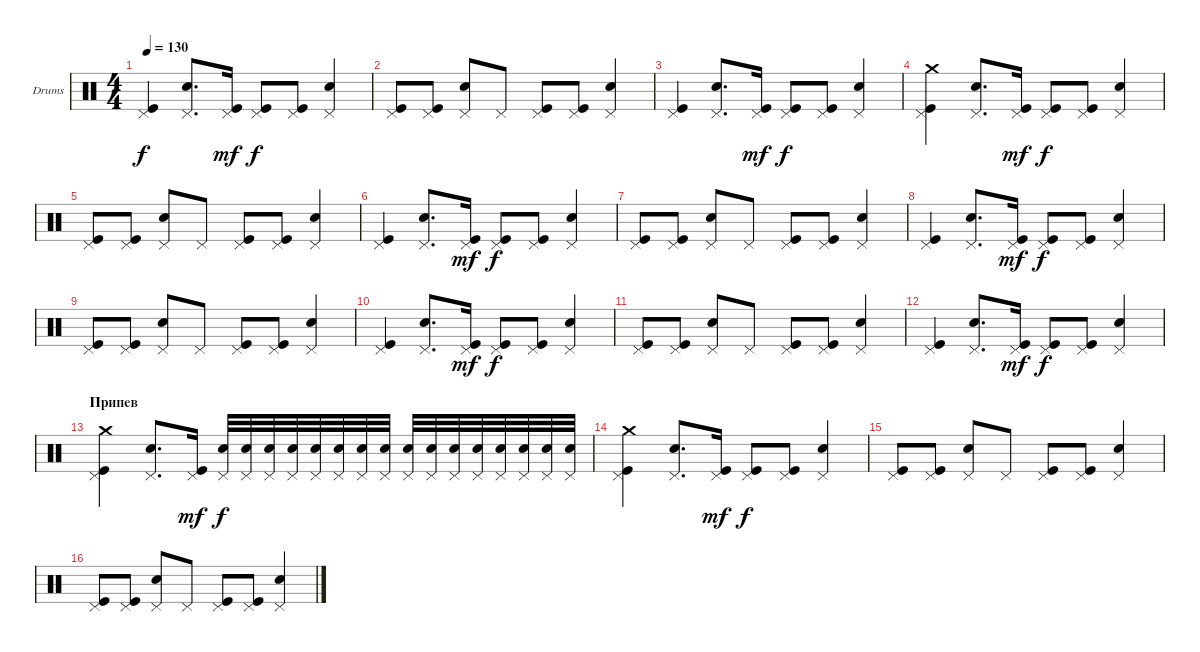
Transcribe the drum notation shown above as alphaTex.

\defaultSystemsLayout 4
\bracketExtendMode groupsimilarinstruments
\firstSystemTrackNameOrientation horizontal
\otherSystemsTrackNameOrientation horizontal
\track ("Е. Кулаков" "Drums") {instrument percussion}
\staff {score}
\articulation defaults
\ts (4 4)
\tempo 130
\clef neutral
\ks c
("Kick (hit)" "Pedal Hi-Hat (hit)").4{dy f} ("Snare (hit) 2" "Pedal Hi-Hat (hit)").8{d} ("Kick (hit)" "Pedal Hi-Hat (hit)").16{dy mf} ("Kick (hit)" "Pedal Hi-Hat (hit)").8{dy f} ("Kick (hit)" "Pedal Hi-Hat (hit)").8 ("Snare (hit) 2" "Pedal Hi-Hat (hit)").4 |
("Kick (hit)" "Pedal Hi-Hat (hit)").8 ("Kick (hit)" "Pedal Hi-Hat (hit)").8 ("Snare (hit) 2" "Pedal Hi-Hat (hit)").8 "Pedal Hi-Hat (hit)".8 ("Kick (hit)" "Pedal Hi-Hat (hit)").8 ("Kick (hit)" "Pedal Hi-Hat (hit)").8 ("Snare (hit) 2" "Pedal Hi-Hat (hit)").4 |
("Kick (hit)" "Pedal Hi-Hat (hit)").4 ("Snare (hit) 2" "Pedal Hi-Hat (hit)").8{d} ("Kick (hit)" "Pedal Hi-Hat (hit)").16{dy mf} ("Kick (hit)" "Pedal Hi-Hat (hit)").8{dy f} ("Kick (hit)" "Pedal Hi-Hat (hit)").8 ("Snare (hit) 2" "Pedal Hi-Hat (hit)").4 |
("Kick (hit)" "Pedal Hi-Hat (hit)" "Crash medium (hit)").4 ("Snare (hit) 2" "Pedal Hi-Hat (hit)").8{d} ("Kick (hit)" "Pedal Hi-Hat (hit)").16{dy mf} ("Kick (hit)" "Pedal Hi-Hat (hit)").8{dy f} ("Kick (hit)" "Pedal Hi-Hat (hit)").8 ("Snare (hit) 2" "Pedal Hi-Hat (hit)").4 |
("Kick (hit)" "Pedal Hi-Hat (hit)").8 ("Kick (hit)" "Pedal Hi-Hat (hit)").8 ("Snare (hit) 2" "Pedal Hi-Hat (hit)").8 "Pedal Hi-Hat (hit)".8 ("Kick (hit)" "Pedal Hi-Hat (hit)").8 ("Kick (hit)" "Pedal Hi-Hat (hit)").8 ("Snare (hit) 2" "Pedal Hi-Hat (hit)").4 |
("Kick (hit)" "Pedal Hi-Hat (hit)").4 ("Snare (hit) 2" "Pedal Hi-Hat (hit)").8{d} ("Kick (hit)" "Pedal Hi-Hat (hit)").16{dy mf} ("Kick (hit)" "Pedal Hi-Hat (hit)").8{dy f} ("Kick (hit)" "Pedal Hi-Hat (hit)").8 ("Snare (hit) 2" "Pedal Hi-Hat (hit)").4 |
("Kick (hit)" "Pedal Hi-Hat (hit)").8 ("Kick (hit)" "Pedal Hi-Hat (hit)").8 ("Snare (hit) 2" "Pedal Hi-Hat (hit)").8 "Pedal Hi-Hat (hit)".8 ("Kick (hit)" "Pedal Hi-Hat (hit)").8 ("Kick (hit)" "Pedal Hi-Hat (hit)").8 ("Snare (hit) 2" "Pedal Hi-Hat (hit)").4 |
("Kick (hit)" "Pedal Hi-Hat (hit)").4 ("Snare (hit) 2" "Pedal Hi-Hat (hit)").8{d} ("Kick (hit)" "Pedal Hi-Hat (hit)").16{dy mf} ("Kick (hit)" "Pedal Hi-Hat (hit)").8{dy f} ("Kick (hit)" "Pedal Hi-Hat (hit)").8 ("Snare (hit) 2" "Pedal Hi-Hat (hit)").4 |
("Kick (hit)" "Pedal Hi-Hat (hit)").8 ("Kick (hit)" "Pedal Hi-Hat (hit)").8 ("Snare (hit) 2" "Pedal Hi-Hat (hit)").8 "Pedal Hi-Hat (hit)".8 ("Kick (hit)" "Pedal Hi-Hat (hit)").8 ("Kick (hit)" "Pedal Hi-Hat (hit)").8 ("Snare (hit) 2" "Pedal Hi-Hat (hit)").4 |
("Kick (hit)" "Pedal Hi-Hat (hit)").4 ("Snare (hit) 2" "Pedal Hi-Hat (hit)").8{d} ("Kick (hit)" "Pedal Hi-Hat (hit)").16{dy mf} ("Kick (hit)" "Pedal Hi-Hat (hit)").8{dy f} ("Kick (hit)" "Pedal Hi-Hat (hit)").8 ("Snare (hit) 2" "Pedal Hi-Hat (hit)").4 |
("Kick (hit)" "Pedal Hi-Hat (hit)").8 ("Kick (hit)" "Pedal Hi-Hat (hit)").8 ("Snare (hit) 2" "Pedal Hi-Hat (hit)").8 "Pedal Hi-Hat (hit)".8 ("Kick (hit)" "Pedal Hi-Hat (hit)").8 ("Kick (hit)" "Pedal Hi-Hat (hit)").8 ("Snare (hit) 2" "Pedal Hi-Hat (hit)").4 |
("Kick (hit)" "Pedal Hi-Hat (hit)").4 ("Snare (hit) 2" "Pedal Hi-Hat (hit)").8{d} ("Kick (hit)" "Pedal Hi-Hat (hit)").16{dy mf} ("Kick (hit)" "Pedal Hi-Hat (hit)").8{dy f} ("Kick (hit)" "Pedal Hi-Hat (hit)").8 ("Snare (hit) 2" "Pedal Hi-Hat (hit)").4 |
\section ("" "Припев")
("Kick (hit)" "Pedal Hi-Hat (hit)" "Crash medium (hit)").4 ("Snare (hit) 2" "Pedal Hi-Hat (hit)").8{d} ("Kick (hit)" "Pedal Hi-Hat (hit)").16{dy mf} ("Snare (hit) 2" "Pedal Hi-Hat (hit)").32{dy f} ("Snare (hit) 2" "Pedal Hi-Hat (hit)").32 ("Snare (hit) 2" "Pedal Hi-Hat (hit)").32 ("Snare (hit) 2" "Pedal Hi-Hat (hit)").32 ("Snare (hit) 2" "Pedal Hi-Hat (hit)").32 ("Snare (hit) 2" "Pedal Hi-Hat (hit)").32 ("Snare (hit) 2" "Pedal Hi-Hat (hit)").32 ("Snare (hit) 2" "Pedal Hi-Hat (hit)").32 ("Snare (hit) 2" "Pedal Hi-Hat (hit)").32 ("Snare (hit) 2" "Pedal Hi-Hat (hit)").32 ("Snare (hit) 2" "Pedal Hi-Hat (hit)").32 ("Snare (hit) 2" "Pedal Hi-Hat (hit)").32 ("Snare (hit) 2" "Pedal Hi-Hat (hit)").32 ("Snare (hit) 2" "Pedal Hi-Hat (hit)").32 ("Snare (hit) 2" "Pedal Hi-Hat (hit)").32 ("Snare (hit) 2" "Pedal Hi-Hat (hit)").32 |
("Kick (hit)" "Pedal Hi-Hat (hit)" "Crash medium (hit)").4 ("Snare (hit) 2" "Pedal Hi-Hat (hit)").8{d} ("Kick (hit)" "Pedal Hi-Hat (hit)").16{dy mf} ("Kick (hit)" "Pedal Hi-Hat (hit)").8{dy f} ("Kick (hit)" "Pedal Hi-Hat (hit)").8 ("Snare (hit) 2" "Pedal Hi-Hat (hit)").4 |
("Kick (hit)" "Pedal Hi-Hat (hit)").8 ("Kick (hit)" "Pedal Hi-Hat (hit)").8 ("Snare (hit) 2" "Pedal Hi-Hat (hit)").8 "Pedal Hi-Hat (hit)".8 ("Kick (hit)" "Pedal Hi-Hat (hit)").8 ("Kick (hit)" "Pedal Hi-Hat (hit)").8 ("Snare (hit) 2" "Pedal Hi-Hat (hit)").4 |
("Kick (hit)" "Pedal Hi-Hat (hit)").8 ("Kick (hit)" "Pedal Hi-Hat (hit)").8 ("Snare (hit) 2" "Pedal Hi-Hat (hit)").8 "Pedal Hi-Hat (hit)".8 ("Kick (hit)" "Pedal Hi-Hat (hit)").8 ("Kick (hit)" "Pedal Hi-Hat (hit)").8 ("Snare (hit) 2" "Pedal Hi-Hat (hit)").4
